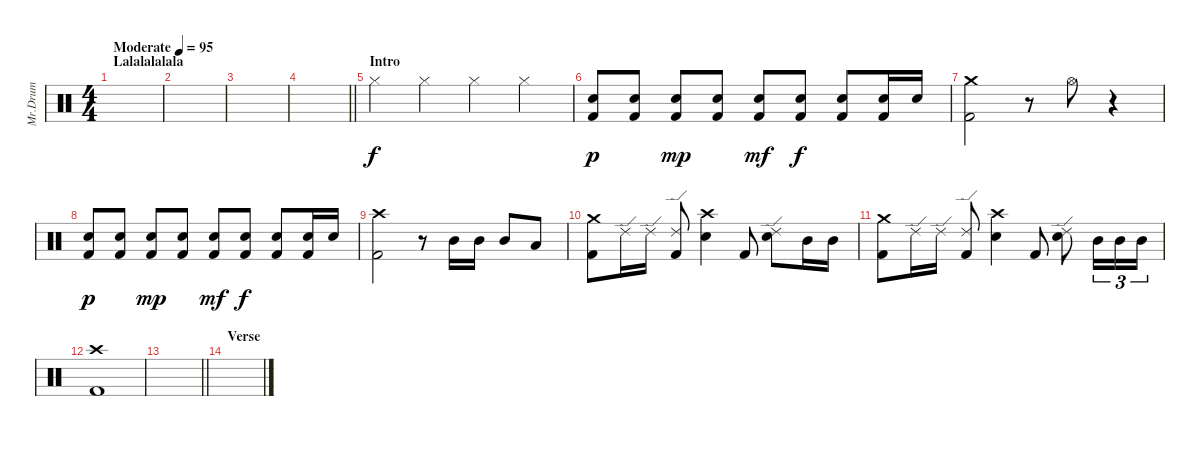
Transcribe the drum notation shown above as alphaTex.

\track ("Mr.Drum" "Mr.Drum") {instrument percussion}
\staff {score}
\articulation defaults
\ts (4 4)
\section ("" "Lalalalalala")
\tempo (95 "Moderate")
\clef neutral
\ks c
|
|
|
\barLineRight lightlight
|
\section ("" "Intro")
"Hi-Hat (closed)".4 "Hi-Hat (closed)".4 "Hi-Hat (closed)".4 "Hi-Hat (closed)".4 |
("Electric Snare (hit)" "Kick (hit) 2").8{dy p} ("Electric Snare (hit)" "Kick (hit) 2").8 ("Electric Snare (hit)" "Kick (hit) 2").8{dy mp} ("Electric Snare (hit)" "Kick (hit) 2").8 ("Electric Snare (hit)" "Kick (hit) 2").8{dy mf} ("Electric Snare (hit)" "Kick (hit) 2").8{dy f} ("Electric Snare (hit)" "Kick (hit) 2").8 ("Electric Snare (hit)" "Kick (hit) 2").16 "Electric Snare (hit)".16 |
("Crash medium (hit)" "Kick (hit) 2").2 r.8 "Hi-Hat (open)".8 r.4 |
("Electric Snare (hit)" "Kick (hit) 2").8{dy p} ("Electric Snare (hit)" "Kick (hit) 2").8 ("Electric Snare (hit)" "Kick (hit) 2").8{dy mp} ("Electric Snare (hit)" "Kick (hit) 2").8 ("Electric Snare (hit)" "Kick (hit) 2").8{dy mf} ("Electric Snare (hit)" "Kick (hit) 2").8{dy f} ("Electric Snare (hit)" "Kick (hit) 2").8 ("Electric Snare (hit)" "Kick (hit) 2").16 "Electric Snare (hit)".16 |
("Crash high (hit)" "Kick (hit) 2").2 r.8 "Mid Tom (hit)".16 "Mid Tom (hit)".16 "Mid Tom (hit)".8 "Low Tom (hit)".8 |
("Crash medium (hit)" "Kick (hit) 2").8 "Ride (edge) 2".16 "Ride (edge) 2".16 ("Ride (edge) 2" "Kick (hit) 2").8 ("Crash high (hit)" "Electric Snare (hit)").4 "Kick (hit) 2".8 ("Ride (edge) 2" "Electric Snare (hit)").8 "Mid Tom (hit)".16 "Mid Tom (hit)".16 |
("Crash medium (hit)" "Kick (hit) 2").8 "Ride (edge) 2".16 "Ride (edge) 2".16 ("Ride (edge) 2" "Kick (hit) 2").8 ("Crash high (hit)" "Electric Snare (hit)").4 "Kick (hit) 2".8 ("Ride (edge) 2" "Electric Snare (hit)").8 "Mid Tom (hit)".16{tu (3 2)} "Mid Tom (hit)".16{tu (3 2)} "Mid Tom (hit)".16{tu (3 2)} |
("Crash high (hit)" "Kick (hit) 2").1 |
\barLineRight lightlight
|
\section ("" "Verse")
